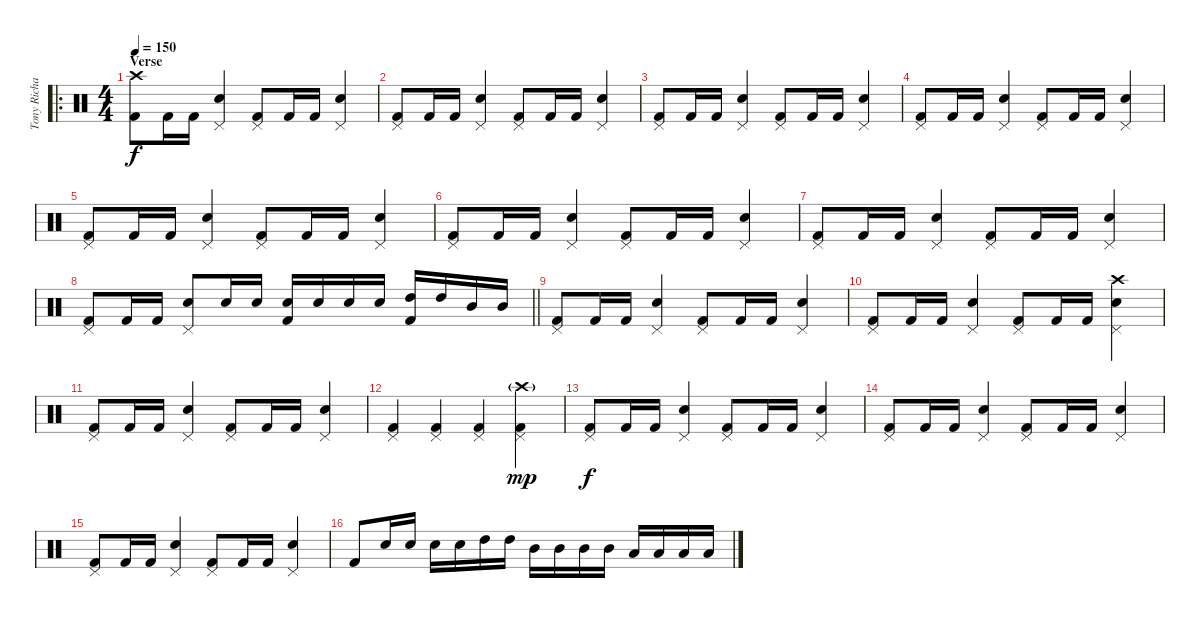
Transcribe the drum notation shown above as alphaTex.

\track ("Tony Richards (drums)" "Tony Richa") {instrument percussion}
\staff {score}
\articulation defaults
\ro
\ts (4 4)
\section ("" "Verse")
\tempo 150
\clef neutral
\ks c
("Crash high (hit)" "Kick (hit) 2").8{dy f} "Kick (hit) 2".16 "Kick (hit) 2".16 ("Pedal Hi-Hat (hit)" "Snare (hit) 2").4 ("Pedal Hi-Hat (hit)" "Kick (hit) 2").8 "Kick (hit) 2".16 "Kick (hit) 2".16 ("Pedal Hi-Hat (hit)" "Snare (hit) 2").4 |
("Pedal Hi-Hat (hit)" "Kick (hit) 2").8 "Kick (hit) 2".16 "Kick (hit) 2".16 ("Pedal Hi-Hat (hit)" "Snare (hit) 2").4 ("Pedal Hi-Hat (hit)" "Kick (hit) 2").8 "Kick (hit) 2".16 "Kick (hit) 2".16 ("Pedal Hi-Hat (hit)" "Snare (hit) 2").4 |
("Pedal Hi-Hat (hit)" "Kick (hit) 2").8 "Kick (hit) 2".16 "Kick (hit) 2".16 ("Pedal Hi-Hat (hit)" "Snare (hit) 2").4 ("Pedal Hi-Hat (hit)" "Kick (hit) 2").8 "Kick (hit) 2".16 "Kick (hit) 2".16 ("Pedal Hi-Hat (hit)" "Snare (hit) 2").4 |
("Pedal Hi-Hat (hit)" "Kick (hit) 2").8 "Kick (hit) 2".16 "Kick (hit) 2".16 ("Pedal Hi-Hat (hit)" "Snare (hit) 2").4 ("Pedal Hi-Hat (hit)" "Kick (hit) 2").8 "Kick (hit) 2".16 "Kick (hit) 2".16 ("Pedal Hi-Hat (hit)" "Snare (hit) 2").4 |
("Pedal Hi-Hat (hit)" "Kick (hit) 2").8 "Kick (hit) 2".16 "Kick (hit) 2".16 ("Pedal Hi-Hat (hit)" "Snare (hit) 2").4 ("Pedal Hi-Hat (hit)" "Kick (hit) 2").8 "Kick (hit) 2".16 "Kick (hit) 2".16 ("Pedal Hi-Hat (hit)" "Snare (hit) 2").4 |
("Pedal Hi-Hat (hit)" "Kick (hit) 2").8 "Kick (hit) 2".16 "Kick (hit) 2".16 ("Pedal Hi-Hat (hit)" "Snare (hit) 2").4 ("Pedal Hi-Hat (hit)" "Kick (hit) 2").8 "Kick (hit) 2".16 "Kick (hit) 2".16 ("Pedal Hi-Hat (hit)" "Snare (hit) 2").4 |
("Pedal Hi-Hat (hit)" "Kick (hit) 2").8 "Kick (hit) 2".16 "Kick (hit) 2".16 ("Pedal Hi-Hat (hit)" "Snare (hit) 2").4 ("Pedal Hi-Hat (hit)" "Kick (hit) 2").8 "Kick (hit) 2".16 "Kick (hit) 2".16 ("Pedal Hi-Hat (hit)" "Snare (hit) 2").4 |
\barLineRight lightlight
("Pedal Hi-Hat (hit)" "Kick (hit) 2").8 "Kick (hit) 2".16 "Kick (hit) 2".16 ("Pedal Hi-Hat (hit)" "Snare (hit) 2").8 "Snare (hit) 2".16 "Snare (hit) 2".16 ("Snare (hit) 2" "Kick (hit) 2").16 "Snare (hit) 2".16 "Snare (hit) 2".16 "Snare (hit) 2".16 ("High Tom (hit)" "Kick (hit) 2").16 "High Tom (hit)".16 "Mid Tom (hit)".16 "Mid Tom (hit)".16 |
("Pedal Hi-Hat (hit)" "Kick (hit) 2").8 "Kick (hit) 2".16 "Kick (hit) 2".16 ("Pedal Hi-Hat (hit)" "Snare (hit) 2").4 ("Pedal Hi-Hat (hit)" "Kick (hit) 2").8 "Kick (hit) 2".16 "Kick (hit) 2".16 ("Pedal Hi-Hat (hit)" "Snare (hit) 2").4 |
("Pedal Hi-Hat (hit)" "Kick (hit) 2").8 "Kick (hit) 2".16 "Kick (hit) 2".16 ("Pedal Hi-Hat (hit)" "Snare (hit) 2").4 ("Pedal Hi-Hat (hit)" "Kick (hit) 2").8 "Kick (hit) 2".16 "Kick (hit) 2".16 ("Crash high (hit)" "Pedal Hi-Hat (hit)" "Snare (hit) 2").4 |
("Pedal Hi-Hat (hit)" "Kick (hit) 2").8 "Kick (hit) 2".16 "Kick (hit) 2".16 ("Pedal Hi-Hat (hit)" "Snare (hit) 2").4 ("Pedal Hi-Hat (hit)" "Kick (hit) 2").8 "Kick (hit) 2".16 "Kick (hit) 2".16 ("Pedal Hi-Hat (hit)" "Snare (hit) 2").4 |
("Pedal Hi-Hat (hit)" "Kick (hit) 2").4 ("Pedal Hi-Hat (hit)" "Kick (hit) 2").4 ("Pedal Hi-Hat (hit)" "Kick (hit) 2").4 ("Crash high (hit)"{g} "Pedal Hi-Hat (hit)" "Kick (hit) 2").4{dy mp} |
("Pedal Hi-Hat (hit)" "Kick (hit) 2").8{dy f} "Kick (hit) 2".16 "Kick (hit) 2".16 ("Pedal Hi-Hat (hit)" "Snare (hit) 2").4 ("Pedal Hi-Hat (hit)" "Kick (hit) 2").8 "Kick (hit) 2".16 "Kick (hit) 2".16 ("Pedal Hi-Hat (hit)" "Snare (hit) 2").4 |
("Pedal Hi-Hat (hit)" "Kick (hit) 2").8 "Kick (hit) 2".16 "Kick (hit) 2".16 ("Pedal Hi-Hat (hit)" "Snare (hit) 2").4 ("Pedal Hi-Hat (hit)" "Kick (hit) 2").8 "Kick (hit) 2".16 "Kick (hit) 2".16 ("Pedal Hi-Hat (hit)" "Snare (hit) 2").4 |
("Pedal Hi-Hat (hit)" "Kick (hit) 2").8 "Kick (hit) 2".16 "Kick (hit) 2".16 ("Pedal Hi-Hat (hit)" "Snare (hit) 2").4 ("Pedal Hi-Hat (hit)" "Kick (hit) 2").8 "Kick (hit) 2".16 "Kick (hit) 2".16 ("Pedal Hi-Hat (hit)" "Snare (hit) 2").4 |
"Kick (hit) 2".8 "Snare (hit) 2".16 "Snare (hit) 2".16 "Snare (hit) 2".16 "Snare (hit) 2".16 "High Tom (hit)".16 "High Tom (hit)".16 "Mid Tom (hit)".16 "Mid Tom (hit)".16 "Mid Tom (hit)".16 "Mid Tom (hit)".16 "Low Tom (hit)".16 "Low Tom (hit)".16 "Low Tom (hit)".16 "Low Tom (hit)".16
